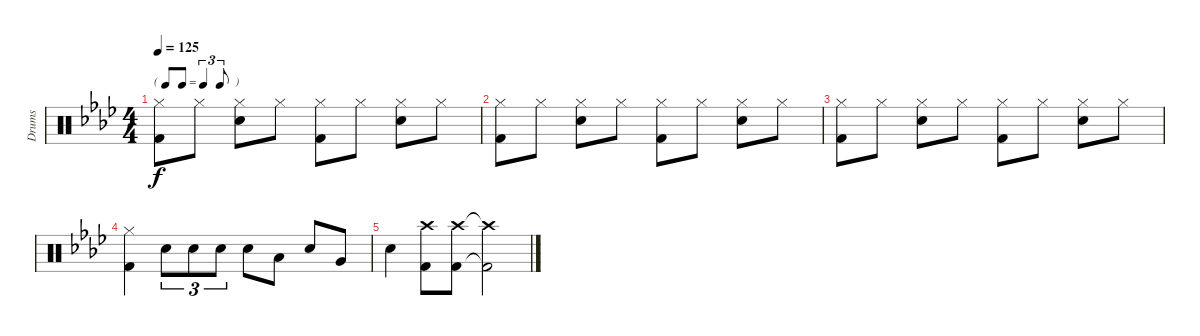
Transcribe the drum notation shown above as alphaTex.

\track ("Drums" "Drums") {instrument percussion}
\staff {score}
\articulation defaults
\ts (4 4)
\tf triplet8th
\tempo 125
\clef neutral
\ks ab
("Hi-Hat (closed)" "Kick (hit) 2").8{dy f} "Hi-Hat (closed)".8 ("Hi-Hat (closed)" "Electric Snare (hit)").8 "Hi-Hat (closed)".8 ("Hi-Hat (closed)" "Kick (hit) 2").8 "Hi-Hat (closed)".8 ("Hi-Hat (closed)" "Electric Snare (hit)").8 "Hi-Hat (closed)".8 |
("Hi-Hat (closed)" "Kick (hit) 2").8 "Hi-Hat (closed)".8 ("Hi-Hat (closed)" "Electric Snare (hit)").8 "Hi-Hat (closed)".8 ("Hi-Hat (closed)" "Kick (hit) 2").8 "Hi-Hat (closed)".8 ("Hi-Hat (closed)" "Electric Snare (hit)").8 "Hi-Hat (closed)".8 |
("Hi-Hat (closed)" "Kick (hit) 2").8 "Hi-Hat (closed)".8 ("Hi-Hat (closed)" "Electric Snare (hit)").8 "Hi-Hat (closed)".8 ("Hi-Hat (closed)" "Kick (hit) 2").8 "Hi-Hat (closed)".8 ("Hi-Hat (closed)" "Electric Snare (hit)").8 "Hi-Hat (closed)".8 |
("Hi-Hat (closed)" "Kick (hit) 2").4 "Electric Snare (hit)".8{tu (3 2)} "Electric Snare (hit)".8{tu (3 2)} "Electric Snare (hit)".8{tu (3 2)} "Electric Snare (hit)".8 "Low Tom (hit)".8 "Electric Snare (hit)".8 "Very Low Tom (hit)".8 |
"Electric Snare (hit)".4 ("Crash high (hit)" "Kick (hit) 2").8 ("Crash high (hit)" "Kick (hit) 2").8 ("Crash high (hit)"{t} "Kick (hit) 2"{t}).2
